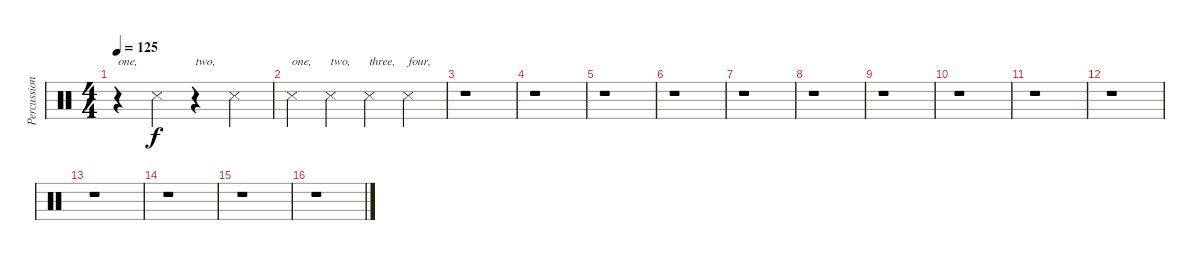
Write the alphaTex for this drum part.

\track ("Percussion" "Percussion") {instrument percussion}
\staff {score}
\articulation defaults
\ts (4 4)
\tempo 125
\clef neutral
\ks c
r.4{txt "one," dy f} "Snare (side stick) 3".4 r.4{txt "two,"} "Snare (side stick) 3".4 |
"Snare (side stick) 3".4{txt "one,"} "Snare (side stick) 3".4{txt "two,"} "Snare (side stick) 3".4{txt "three,"} "Snare (side stick) 3".4{txt "four,"} |
r.1 |
r.1 |
r.1 |
r.1 |
r.1 |
r.1 |
r.1 |
r.1 |
r.1 |
r.1 |
r.1 |
r.1 |
r.1 |
r.1
